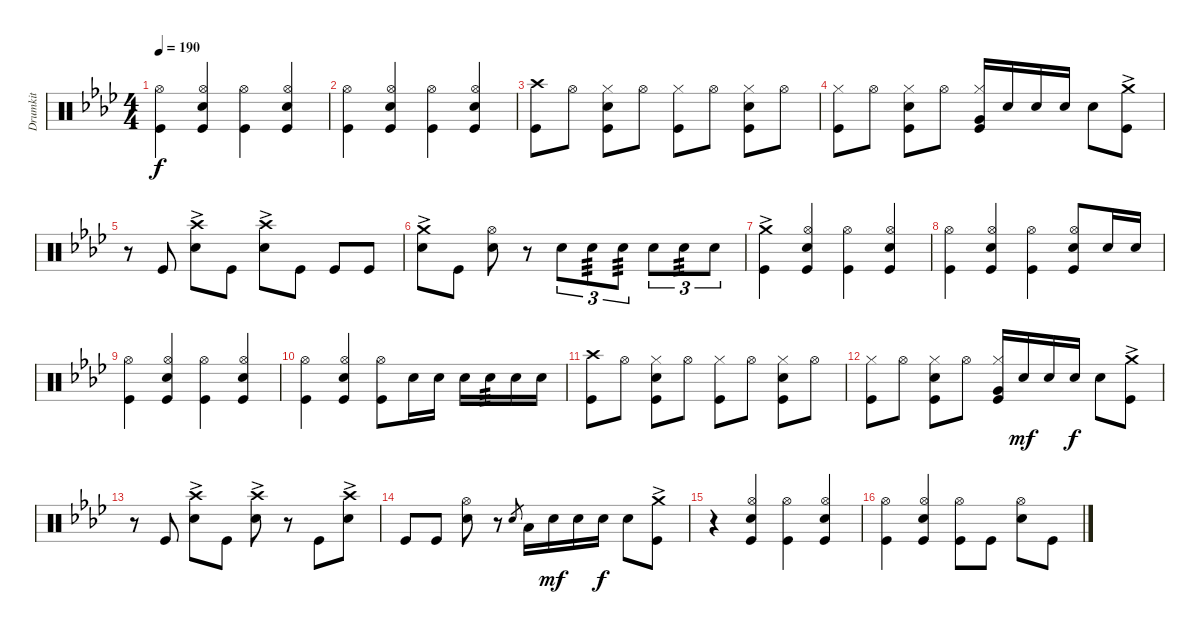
\track ("Drumkit" "Drumkit") {instrument percussion}
\staff {score}
\articulation defaults
\ts (4 4)
\tempo 190
\clef neutral
\ks ab
("Kick (hit)" "Hi-Hat (open)").4{dy f} ("Snare (hit) 2" "Hi-Hat (open)" "Kick (hit)").4 ("Kick (hit)" "Hi-Hat (open)").4 ("Snare (hit) 2" "Hi-Hat (open)" "Kick (hit)").4 |
("Kick (hit)" "Hi-Hat (open)").4 ("Snare (hit) 2" "Hi-Hat (open)" "Kick (hit)").4 ("Kick (hit)" "Hi-Hat (open)").4 ("Snare (hit) 2" "Hi-Hat (open)" "Kick (hit)").4 |
("Kick (hit)" "Crash high (hit)").8 "Hi-Hat (open)".8 ("Kick (hit)" "Snare (hit) 2" "Hi-Hat (closed)").8 "Hi-Hat (open)".8 ("Kick (hit)" "Hi-Hat (closed)").8 "Hi-Hat (open)".8 ("Kick (hit)" "Hi-Hat (closed)" "Snare (hit) 2").8 "Hi-Hat (open)".8 |
("Kick (hit)" "Hi-Hat (closed)").8 "Hi-Hat (open)".8 ("Kick (hit)" "Snare (hit) 2" "Hi-Hat (closed)").8 "Hi-Hat (open)".8 ("Hi-Hat (closed)" "Very Low Tom (hit)" "Kick (hit)").16 "Snare (hit) 2".16 "Snare (hit) 2".16 "Snare (hit) 2".16 "Snare (hit) 2".8 ("Kick (hit)" "Crash medium (hit)"{ac}).8 |
r.8 "Kick (hit)".8 ("Snare (hit) 2" "Crash high (hit)"{ac}).8 "Kick (hit)".8 ("Snare (hit) 2" "Crash high (hit)"{ac}).8 "Kick (hit)".8 "Kick (hit)".8 "Kick (hit)".8 |
("Snare (hit) 2" "Crash medium (hit)"{ac}).8 "Kick (hit)".8 ("Snare (hit) 2" "Hi-Hat (open)").8 r.8 "Snare (hit) 2".8{tu (3 2)} "Snare (hit) 2".8{tu (3 2) tp 3} "Snare (hit) 2".8{tu (3 2) tp 3} "Snare (hit) 2".8{tu (3 2)} "Snare (hit) 2".8{tu (3 2) tp 3} "Snare (hit) 2".8{tu (3 2)} |
("Kick (hit)" "Crash medium (hit)"{ac}).4 ("Snare (hit) 2" "Hi-Hat (open)" "Kick (hit)").4 ("Kick (hit)" "Hi-Hat (open)").4 ("Snare (hit) 2" "Hi-Hat (open)" "Kick (hit)").4 |
("Kick (hit)" "Hi-Hat (open)").4 ("Snare (hit) 2" "Hi-Hat (open)" "Kick (hit)").4 ("Kick (hit)" "Hi-Hat (open)").4 ("Snare (hit) 2" "Hi-Hat (open)" "Kick (hit)").8 "Snare (hit) 2".16 "Snare (hit) 2".16 |
("Kick (hit)" "Hi-Hat (open)").4 ("Snare (hit) 2" "Hi-Hat (open)" "Kick (hit)").4 ("Kick (hit)" "Hi-Hat (open)").4 ("Snare (hit) 2" "Hi-Hat (open)" "Kick (hit)").4 |
("Kick (hit)" "Hi-Hat (open)").4 ("Snare (hit) 2" "Hi-Hat (open)" "Kick (hit)").4 ("Kick (hit)" "Hi-Hat (open)").8 "Snare (hit) 2".16 "Snare (hit) 2".16 "Snare (hit) 2".16 "Snare (hit) 2".16{tp 3} "Snare (hit) 2".16 "Snare (hit) 2".16 |
("Kick (hit)" "Crash high (hit)").8 "Hi-Hat (open)".8 ("Kick (hit)" "Snare (hit) 2" "Hi-Hat (closed)").8 "Hi-Hat (open)".8 ("Kick (hit)" "Hi-Hat (closed)").8 "Hi-Hat (open)".8 ("Kick (hit)" "Hi-Hat (closed)" "Snare (hit) 2").8 "Hi-Hat (open)".8 |
("Kick (hit)" "Hi-Hat (closed)").8 "Hi-Hat (open)".8 ("Kick (hit)" "Snare (hit) 2" "Hi-Hat (closed)").8 "Hi-Hat (open)".8 ("Hi-Hat (closed)" "Very Low Tom (hit)" "Kick (hit)").16 "Snare (hit) 2".16{dy mf} "Snare (hit) 2".16 "Snare (hit) 2".16{dy f} "Snare (hit) 2".8 ("Kick (hit)" "Crash medium (hit)"{ac}).8 |
r.8 "Kick (hit)".8 ("Snare (hit) 2" "Crash high (hit)"{ac}).8 "Kick (hit)".8 ("Snare (hit) 2" "Crash high (hit)"{ac}).8 r.8 "Kick (hit)".8 ("Snare (hit) 2" "Crash high (hit)"{ac}).8 |
"Kick (hit)".8 "Kick (hit)".8 ("Snare (hit) 2" "Hi-Hat (open)").8 r.8 "Snare (hit)".8{gr} "Low Tom (hit)".16 "Snare (hit) 2".16{dy mf} "Snare (hit) 2".16 "Snare (hit) 2".16{dy f} "Snare (hit) 2".8 ("Kick (hit)" "Crash medium (hit)"{ac}).8 |
r.4 ("Snare (hit) 2" "Hi-Hat (open)" "Kick (hit)").4 ("Kick (hit)" "Hi-Hat (open)").4 ("Snare (hit) 2" "Hi-Hat (open)" "Kick (hit)").4 |
("Kick (hit)" "Hi-Hat (open)").4 ("Snare (hit) 2" "Hi-Hat (open)" "Kick (hit)").4 ("Kick (hit)" "Hi-Hat (open)").8 "Kick (hit)".8 ("Snare (hit) 2" "Hi-Hat (open)").8 "Kick (hit)".8
